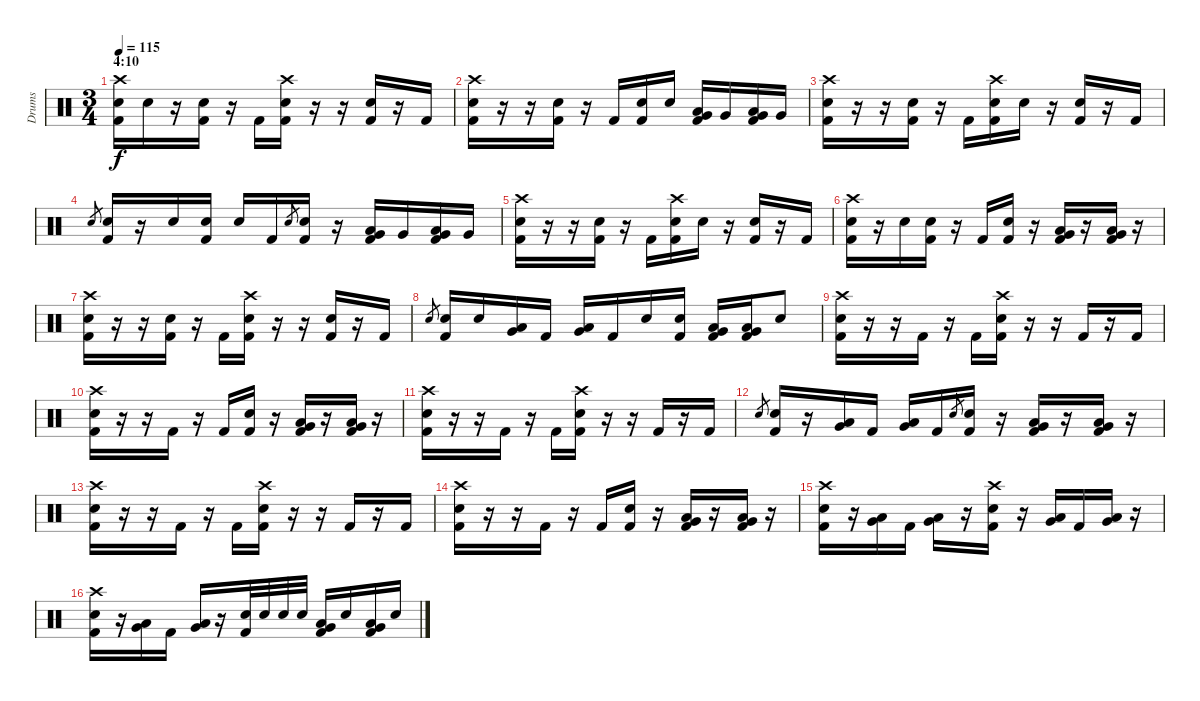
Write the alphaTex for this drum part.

\track ("Drums" "Drums") {instrument percussion}
\staff {score}
\articulation defaults
\ts (3 4)
\section ("" "4:10")
\tempo 115
\clef neutral
\ks c
("Crash high (hit)" "Electric Snare (hit)" "Kick (hit) 2").16{dy f} "Electric Snare (hit)".16 r.16 ("Electric Snare (hit)" "Kick (hit) 2").16 r.16 "Kick (hit) 2".16 ("Crash high (hit)" "Electric Snare (hit)" "Kick (hit) 2").16 r.16 r.16 ("Electric Snare (hit)" "Kick (hit) 2").16 r.16 "Kick (hit) 2".16 |
("Crash high (hit)" "Electric Snare (hit)" "Kick (hit) 2").16 r.16 r.16 ("Electric Snare (hit)" "Kick (hit) 2").16 r.16 "Kick (hit) 2".16 ("Electric Snare (hit)" "Kick (hit) 2").16 "Electric Snare (hit)".16 ("Low Tom (hit)" "Very Low Tom (hit)" "Kick (hit) 2").16 "Very Low Tom (hit)".16 ("Very Low Tom (hit)" "Low Floor Tom (hit)" "Kick (hit) 2").16 "Very Low Tom (hit)".16 |
("Crash high (hit)" "Electric Snare (hit)" "Kick (hit) 2").16 r.16 r.16 ("Electric Snare (hit)" "Kick (hit) 2").16 r.16 "Kick (hit) 2".16 ("Crash high (hit)" "Electric Snare (hit)" "Kick (hit) 2").16 "Electric Snare (hit)".16 r.16 ("Electric Snare (hit)" "Kick (hit) 2").16 r.16 "Kick (hit) 2".16 |
"Electric Snare (hit)".8{gr} ("Electric Snare (hit)" "Kick (hit) 2").16 r.16 "Electric Snare (hit)".16 ("Electric Snare (hit)" "Kick (hit) 2").16 "Electric Snare (hit)".16 "Kick (hit) 2".16 "Electric Snare (hit)".8{gr} ("Electric Snare (hit)" "Kick (hit) 2").16 r.16 ("Low Tom (hit)" "Very Low Tom (hit)" "Kick (hit) 2").16 "Very Low Tom (hit)".16 ("Very Low Tom (hit)" "Low Floor Tom (hit)" "Kick (hit) 2").16 "Very Low Tom (hit)".16 |
("Crash high (hit)" "Electric Snare (hit)" "Kick (hit) 2").16 r.16 r.16 ("Electric Snare (hit)" "Kick (hit) 2").16 r.16 "Kick (hit) 2".16 ("Crash high (hit)" "Electric Snare (hit)" "Kick (hit) 2").16 "Electric Snare (hit)".16 r.16 ("Electric Snare (hit)" "Kick (hit) 2").16 r.16 "Kick (hit) 2".16 |
("Crash high (hit)" "Electric Snare (hit)" "Kick (hit) 2").16 r.16 "Electric Snare (hit)".16 ("Electric Snare (hit)" "Kick (hit) 2").16 r.16 "Kick (hit) 2".16 ("Electric Snare (hit)" "Kick (hit) 2").16 r.16 ("Low Tom (hit)" "Very Low Tom (hit)" "Kick (hit) 2").16 r.16 ("Very Low Tom (hit)" "Low Floor Tom (hit)" "Kick (hit) 2").16 r.16 |
("Crash high (hit)" "Electric Snare (hit)" "Kick (hit) 2").16 r.16 r.16 ("Electric Snare (hit)" "Kick (hit) 2").16 r.16 "Kick (hit) 2".16 ("Crash high (hit)" "Electric Snare (hit)" "Kick (hit) 2").16 r.16 r.16 ("Electric Snare (hit)" "Kick (hit) 2").16 r.16 "Kick (hit) 2".16 |
"Electric Snare (hit)".8{gr} ("Electric Snare (hit)" "Kick (hit) 2").16 "Electric Snare (hit)".16 ("Low Tom (hit)" "Very Low Tom (hit)").16 "Kick (hit) 2".16 ("Low Floor Tom (hit)" "Very Low Tom (hit)").16 "Kick (hit) 2".16 "Electric Snare (hit)".16 ("Electric Snare (hit)" "Kick (hit) 2").16 ("Low Tom (hit)" "Very Low Tom (hit)" "Kick (hit) 2").16 ("Very Low Tom (hit)" "Low Floor Tom (hit)" "Kick (hit) 2").16 "Electric Snare (hit)".8 |
("Crash high (hit)" "Electric Snare (hit)" "Kick (hit) 2").16 r.16 r.16 "Kick (hit) 2".16 r.16 "Kick (hit) 2".16 ("Crash high (hit)" "Electric Snare (hit)" "Kick (hit) 2").16 r.16 r.16 "Kick (hit) 2".16 r.16 "Kick (hit) 2".16 |
("Crash high (hit)" "Electric Snare (hit)" "Kick (hit) 2").16 r.16 r.16 "Kick (hit) 2".16 r.16 "Kick (hit) 2".16 ("Electric Snare (hit)" "Kick (hit) 2").16 r.16 ("Low Tom (hit)" "Very Low Tom (hit)" "Kick (hit) 2").16 r.16 ("Very Low Tom (hit)" "Low Floor Tom (hit)" "Kick (hit) 2").16 r.16 |
("Crash high (hit)" "Electric Snare (hit)" "Kick (hit) 2").16 r.16 r.16 "Kick (hit) 2".16 r.16 "Kick (hit) 2".16 ("Crash high (hit)" "Electric Snare (hit)" "Kick (hit) 2").16 r.16 r.16 "Kick (hit) 2".16 r.16 "Kick (hit) 2".16 |
"Electric Snare (hit)".8{gr} ("Electric Snare (hit)" "Kick (hit) 2").16 r.16 ("Low Tom (hit)" "Very Low Tom (hit)").16 "Kick (hit) 2".16 ("Low Floor Tom (hit)" "Very Low Tom (hit)").16 "Kick (hit) 2".16 "Electric Snare (hit)".8{gr} ("Electric Snare (hit)" "Kick (hit) 2").16 r.16 ("Low Tom (hit)" "Very Low Tom (hit)" "Kick (hit) 2").16 r.16 ("Very Low Tom (hit)" "Low Floor Tom (hit)" "Kick (hit) 2").16 r.16 |
("Crash high (hit)" "Electric Snare (hit)" "Kick (hit) 2").16 r.16 r.16 "Kick (hit) 2".16 r.16 "Kick (hit) 2".16 ("Crash high (hit)" "Electric Snare (hit)" "Kick (hit) 2").16 r.16 r.16 "Kick (hit) 2".16 r.16 "Kick (hit) 2".16 |
("Crash high (hit)" "Electric Snare (hit)" "Kick (hit) 2").16 r.16 r.16 "Kick (hit) 2".16 r.16 "Kick (hit) 2".16 ("Electric Snare (hit)" "Kick (hit) 2").16 r.16 ("Low Tom (hit)" "Very Low Tom (hit)" "Kick (hit) 2").16 r.16 ("Very Low Tom (hit)" "Low Floor Tom (hit)" "Kick (hit) 2").16 r.16 |
("Crash high (hit)" "Electric Snare (hit)" "Kick (hit) 2").16 r.16 ("Low Tom (hit)" "Very Low Tom (hit)").16 "Kick (hit) 2".16 ("Low Tom (hit)" "Very Low Tom (hit)").16 r.16 ("Crash high (hit)" "Electric Snare (hit)" "Kick (hit) 2").16 r.16 ("Low Tom (hit)" "Very Low Tom (hit)").16 "Kick (hit) 2".16 ("Low Tom (hit)" "Very Low Tom (hit)").16 r.16 |
("Crash high (hit)" "Electric Snare (hit)" "Kick (hit) 2").16 r.16 ("Low Tom (hit)" "Very Low Tom (hit)").16 "Kick (hit) 2".16 ("Low Tom (hit)" "Very Low Tom (hit)").16 r.16 ("Electric Snare (hit)" "Kick (hit) 2").32 "Electric Snare (hit)".32 "Electric Snare (hit)".32 "Electric Snare (hit)".32 ("Low Tom (hit)" "Very Low Tom (hit)" "Kick (hit) 2").16 "Electric Snare (hit)".16 ("Very Low Tom (hit)" "Low Floor Tom (hit)" "Kick (hit) 2").16 "Electric Snare (hit)".16
